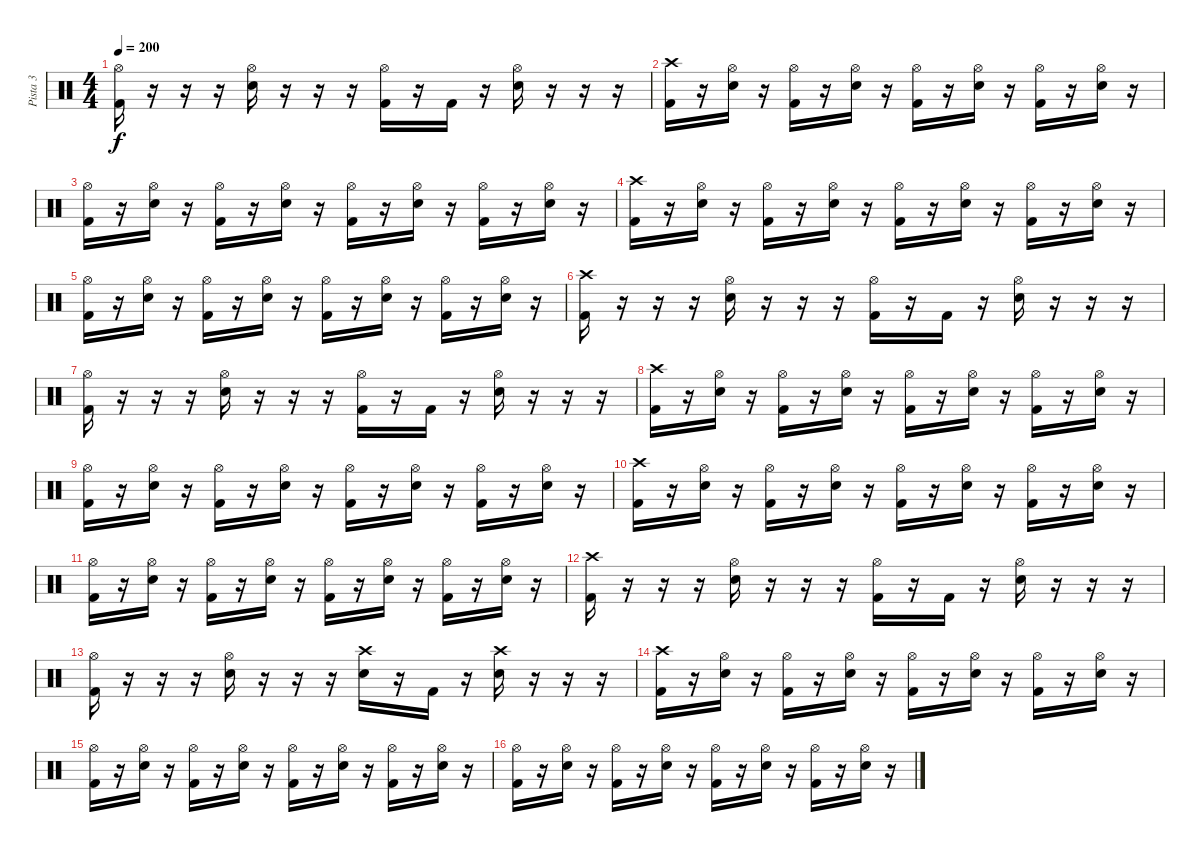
\track ("Pista 3" "Pista 3") {instrument percussion}
\staff {score}
\articulation defaults
\ts (4 4)
\tempo 200
\clef neutral
\ks c
("Hi-Hat (open)" "Kick (hit) 2").16{dy f} r.16 r.16 r.16 ("Hi-Hat (open)" "Electric Snare (hit)").16 r.16 r.16 r.16 ("Hi-Hat (open)" "Kick (hit) 2").16 r.16 "Kick (hit) 2".16 r.16 ("Hi-Hat (open)" "Electric Snare (hit)").16 r.16 r.16 r.16 |
("Crash high (hit)" "Kick (hit) 2").16 r.16 ("Hi-Hat (open)" "Electric Snare (hit)").16 r.16 ("Hi-Hat (open)" "Kick (hit) 2").16 r.16 ("Hi-Hat (open)" "Electric Snare (hit)").16 r.16 ("Hi-Hat (open)" "Kick (hit) 2").16 r.16 ("Hi-Hat (open)" "Electric Snare (hit)").16 r.16 ("Hi-Hat (open)" "Kick (hit) 2").16 r.16 ("Hi-Hat (open)" "Electric Snare (hit)").16 r.16 |
("Hi-Hat (open)" "Kick (hit) 2").16 r.16 ("Hi-Hat (open)" "Electric Snare (hit)").16 r.16 ("Hi-Hat (open)" "Kick (hit) 2").16 r.16 ("Hi-Hat (open)" "Electric Snare (hit)").16 r.16 ("Hi-Hat (open)" "Kick (hit) 2").16 r.16 ("Hi-Hat (open)" "Electric Snare (hit)").16 r.16 ("Hi-Hat (open)" "Kick (hit) 2").16 r.16 ("Hi-Hat (open)" "Electric Snare (hit)").16 r.16 |
("Crash high (hit)" "Kick (hit) 2").16 r.16 ("Hi-Hat (open)" "Electric Snare (hit)").16 r.16 ("Hi-Hat (open)" "Kick (hit) 2").16 r.16 ("Hi-Hat (open)" "Electric Snare (hit)").16 r.16 ("Hi-Hat (open)" "Kick (hit) 2").16 r.16 ("Hi-Hat (open)" "Electric Snare (hit)").16 r.16 ("Hi-Hat (open)" "Kick (hit) 2").16 r.16 ("Hi-Hat (open)" "Electric Snare (hit)").16 r.16 |
("Hi-Hat (open)" "Kick (hit) 2").16 r.16 ("Hi-Hat (open)" "Electric Snare (hit)").16 r.16 ("Hi-Hat (open)" "Kick (hit) 2").16 r.16 ("Hi-Hat (open)" "Electric Snare (hit)").16 r.16 ("Hi-Hat (open)" "Kick (hit) 2").16 r.16 ("Hi-Hat (open)" "Electric Snare (hit)").16 r.16 ("Hi-Hat (open)" "Kick (hit) 2").16 r.16 ("Hi-Hat (open)" "Electric Snare (hit)").16 r.16 |
("Crash high (hit)" "Kick (hit) 2").16 r.16 r.16 r.16 ("Hi-Hat (open)" "Electric Snare (hit)").16 r.16 r.16 r.16 ("Hi-Hat (open)" "Kick (hit) 2").16 r.16 "Kick (hit) 2".16 r.16 ("Hi-Hat (open)" "Electric Snare (hit)").16 r.16 r.16 r.16 |
("Hi-Hat (open)" "Kick (hit) 2").16 r.16 r.16 r.16 ("Hi-Hat (open)" "Electric Snare (hit)").16 r.16 r.16 r.16 ("Hi-Hat (open)" "Kick (hit) 2").16 r.16 "Kick (hit) 2".16 r.16 ("Hi-Hat (open)" "Electric Snare (hit)").16 r.16 r.16 r.16 |
("Crash high (hit)" "Kick (hit) 2").16 r.16 ("Hi-Hat (open)" "Electric Snare (hit)").16 r.16 ("Hi-Hat (open)" "Kick (hit) 2").16 r.16 ("Hi-Hat (open)" "Electric Snare (hit)").16 r.16 ("Hi-Hat (open)" "Kick (hit) 2").16 r.16 ("Hi-Hat (open)" "Electric Snare (hit)").16 r.16 ("Hi-Hat (open)" "Kick (hit) 2").16 r.16 ("Hi-Hat (open)" "Electric Snare (hit)").16 r.16 |
("Hi-Hat (open)" "Kick (hit) 2").16 r.16 ("Hi-Hat (open)" "Electric Snare (hit)").16 r.16 ("Hi-Hat (open)" "Kick (hit) 2").16 r.16 ("Hi-Hat (open)" "Electric Snare (hit)").16 r.16 ("Hi-Hat (open)" "Kick (hit) 2").16 r.16 ("Hi-Hat (open)" "Electric Snare (hit)").16 r.16 ("Hi-Hat (open)" "Kick (hit) 2").16 r.16 ("Hi-Hat (open)" "Electric Snare (hit)").16 r.16 |
("Crash high (hit)" "Kick (hit) 2").16 r.16 ("Hi-Hat (open)" "Electric Snare (hit)").16 r.16 ("Hi-Hat (open)" "Kick (hit) 2").16 r.16 ("Hi-Hat (open)" "Electric Snare (hit)").16 r.16 ("Hi-Hat (open)" "Kick (hit) 2").16 r.16 ("Hi-Hat (open)" "Electric Snare (hit)").16 r.16 ("Hi-Hat (open)" "Kick (hit) 2").16 r.16 ("Hi-Hat (open)" "Electric Snare (hit)").16 r.16 |
("Hi-Hat (open)" "Kick (hit) 2").16 r.16 ("Hi-Hat (open)" "Electric Snare (hit)").16 r.16 ("Hi-Hat (open)" "Kick (hit) 2").16 r.16 ("Hi-Hat (open)" "Electric Snare (hit)").16 r.16 ("Hi-Hat (open)" "Kick (hit) 2").16 r.16 ("Hi-Hat (open)" "Electric Snare (hit)").16 r.16 ("Hi-Hat (open)" "Kick (hit) 2").16 r.16 ("Hi-Hat (open)" "Electric Snare (hit)").16 r.16 |
("Crash high (hit)" "Kick (hit) 2").16 r.16 r.16 r.16 ("Hi-Hat (open)" "Electric Snare (hit)").16 r.16 r.16 r.16 ("Hi-Hat (open)" "Kick (hit) 2").16 r.16 "Kick (hit) 2".16 r.16 ("Hi-Hat (open)" "Electric Snare (hit)").16 r.16 r.16 r.16 |
("Hi-Hat (open)" "Kick (hit) 2").16 r.16 r.16 r.16 ("Hi-Hat (open)" "Electric Snare (hit)").16 r.16 r.16 r.16 ("Crash high (hit)" "Electric Snare (hit)").16 r.16 "Kick (hit) 2".16 r.16 ("Crash high (hit)" "Electric Snare (hit)").16 r.16 r.16 r.16 |
("Crash high (hit)" "Kick (hit) 2").16 r.16 ("Hi-Hat (open)" "Electric Snare (hit)").16 r.16 ("Hi-Hat (open)" "Kick (hit) 2").16 r.16 ("Hi-Hat (open)" "Electric Snare (hit)").16 r.16 ("Hi-Hat (open)" "Kick (hit) 2").16 r.16 ("Hi-Hat (open)" "Electric Snare (hit)").16 r.16 ("Hi-Hat (open)" "Kick (hit) 2").16 r.16 ("Hi-Hat (open)" "Electric Snare (hit)").16 r.16 |
("Hi-Hat (open)" "Kick (hit) 2").16 r.16 ("Hi-Hat (open)" "Electric Snare (hit)").16 r.16 ("Hi-Hat (open)" "Kick (hit) 2").16 r.16 ("Hi-Hat (open)" "Electric Snare (hit)").16 r.16 ("Hi-Hat (open)" "Kick (hit) 2").16 r.16 ("Hi-Hat (open)" "Electric Snare (hit)").16 r.16 ("Hi-Hat (open)" "Kick (hit) 2").16 r.16 ("Hi-Hat (open)" "Electric Snare (hit)").16 r.16 |
("Hi-Hat (open)" "Kick (hit) 2").16 r.16 ("Hi-Hat (open)" "Electric Snare (hit)").16 r.16 ("Hi-Hat (open)" "Kick (hit) 2").16 r.16 ("Hi-Hat (open)" "Electric Snare (hit)").16 r.16 ("Hi-Hat (open)" "Kick (hit) 2").16 r.16 ("Hi-Hat (open)" "Electric Snare (hit)").16 r.16 ("Hi-Hat (open)" "Kick (hit) 2").16 r.16 ("Hi-Hat (open)" "Electric Snare (hit)").16 r.16
